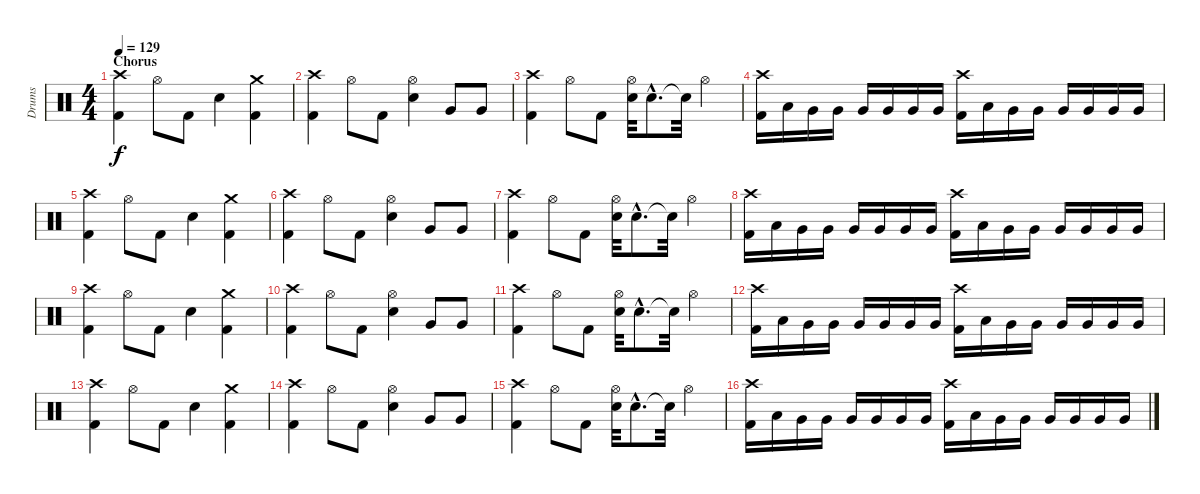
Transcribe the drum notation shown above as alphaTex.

\track ("Drums" "Drums") {instrument percussion}
\staff {score}
\articulation defaults
\ts (4 4)
\section ("" "Chorus")
\tempo 129
\clef neutral
\ks c
("Crash high (hit)" "Kick (hit) 2").4{dy f} "Hi-Hat (open)".8 "Kick (hit) 2".8 "Snare (hit) 2".4 ("Crash medium (hit)" "Kick (hit) 2").4 |
("Crash high (hit)" "Kick (hit) 2").4 "Hi-Hat (open)".8 "Kick (hit) 2".8 ("Hi-Hat (open)" "Snare (hit) 2").4 "Very Low Tom (hit)".8 "Very Low Tom (hit)".8 |
("Crash high (hit)" "Kick (hit) 2").4 "Hi-Hat (open)".8 "Kick (hit) 2".8 ("Hi-Hat (open)" "Snare (hit) 2").32 "Snare (hit) 2"{hac}.8{d} "Snare (hit)"{t}.32 "Hi-Hat (open)".4 |
("Crash high (hit)" "Kick (hit) 2").16 "Low Tom (hit)".16 "Very Low Tom (hit)".16 "Very Low Tom (hit)".16 "Very Low Tom (hit)".16 "Very Low Tom (hit)".16 "Very Low Tom (hit)".16 "Very Low Tom (hit)".16 ("Crash high (hit)" "Kick (hit) 2").16 "Low Tom (hit)".16 "Very Low Tom (hit)".16 "Very Low Tom (hit)".16 "Very Low Tom (hit)".16 "Very Low Tom (hit)".16 "Very Low Tom (hit)".16 "Very Low Tom (hit)".16 |
("Crash high (hit)" "Kick (hit) 2").4 "Hi-Hat (open)".8 "Kick (hit) 2".8 "Snare (hit) 2".4 ("Crash medium (hit)" "Kick (hit) 2").4 |
("Crash high (hit)" "Kick (hit) 2").4 "Hi-Hat (open)".8 "Kick (hit) 2".8 ("Hi-Hat (open)" "Snare (hit) 2").4 "Very Low Tom (hit)".8 "Very Low Tom (hit)".8 |
("Crash high (hit)" "Kick (hit) 2").4 "Hi-Hat (open)".8 "Kick (hit) 2".8 ("Hi-Hat (open)" "Snare (hit) 2").32 "Snare (hit) 2"{hac}.8{d} "Snare (hit)"{t}.32 "Hi-Hat (open)".4 |
("Crash high (hit)" "Kick (hit) 2").16 "Low Tom (hit)".16 "Very Low Tom (hit)".16 "Very Low Tom (hit)".16 "Very Low Tom (hit)".16 "Very Low Tom (hit)".16 "Very Low Tom (hit)".16 "Very Low Tom (hit)".16 ("Crash high (hit)" "Kick (hit) 2").16 "Low Tom (hit)".16 "Very Low Tom (hit)".16 "Very Low Tom (hit)".16 "Very Low Tom (hit)".16 "Very Low Tom (hit)".16 "Very Low Tom (hit)".16 "Very Low Tom (hit)".16 |
("Crash high (hit)" "Kick (hit) 2").4 "Hi-Hat (open)".8 "Kick (hit) 2".8 "Snare (hit) 2".4 ("Crash medium (hit)" "Kick (hit) 2").4 |
("Crash high (hit)" "Kick (hit) 2").4 "Hi-Hat (open)".8 "Kick (hit) 2".8 ("Hi-Hat (open)" "Snare (hit) 2").4 "Very Low Tom (hit)".8 "Very Low Tom (hit)".8 |
("Crash high (hit)" "Kick (hit) 2").4 "Hi-Hat (open)".8 "Kick (hit) 2".8 ("Hi-Hat (open)" "Snare (hit) 2").32 "Snare (hit) 2"{hac}.8{d} "Snare (hit)"{t}.32 "Hi-Hat (open)".4 |
("Crash high (hit)" "Kick (hit) 2").16 "Low Tom (hit)".16 "Very Low Tom (hit)".16 "Very Low Tom (hit)".16 "Very Low Tom (hit)".16 "Very Low Tom (hit)".16 "Very Low Tom (hit)".16 "Very Low Tom (hit)".16 ("Crash high (hit)" "Kick (hit) 2").16 "Low Tom (hit)".16 "Very Low Tom (hit)".16 "Very Low Tom (hit)".16 "Very Low Tom (hit)".16 "Very Low Tom (hit)".16 "Very Low Tom (hit)".16 "Very Low Tom (hit)".16 |
("Crash high (hit)" "Kick (hit) 2").4 "Hi-Hat (open)".8 "Kick (hit) 2".8 "Snare (hit) 2".4 ("Crash medium (hit)" "Kick (hit) 2").4 |
("Crash high (hit)" "Kick (hit) 2").4 "Hi-Hat (open)".8 "Kick (hit) 2".8 ("Hi-Hat (open)" "Snare (hit) 2").4 "Very Low Tom (hit)".8 "Very Low Tom (hit)".8 |
("Crash high (hit)" "Kick (hit) 2").4 "Hi-Hat (open)".8 "Kick (hit) 2".8 ("Hi-Hat (open)" "Snare (hit) 2").32 "Snare (hit) 2"{hac}.8{d} "Snare (hit)"{t}.32 "Hi-Hat (open)".4 |
("Crash high (hit)" "Kick (hit) 2").16 "Low Tom (hit)".16 "Very Low Tom (hit)".16 "Very Low Tom (hit)".16 "Very Low Tom (hit)".16 "Very Low Tom (hit)".16 "Very Low Tom (hit)".16 "Very Low Tom (hit)".16 ("Crash high (hit)" "Kick (hit) 2").16 "Low Tom (hit)".16 "Very Low Tom (hit)".16 "Very Low Tom (hit)".16 "Very Low Tom (hit)".16 "Very Low Tom (hit)".16 "Very Low Tom (hit)".16 "Very Low Tom (hit)".16
